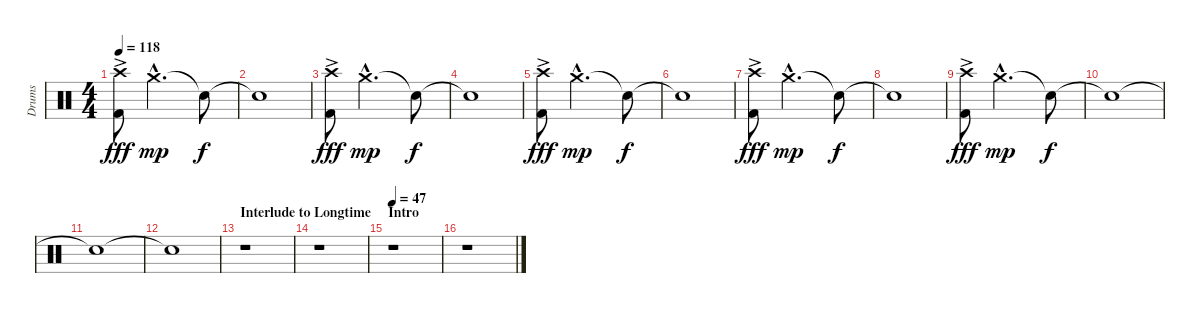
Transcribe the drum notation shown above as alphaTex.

\track ("Drums" "Drums") {instrument percussion}
\staff {score}
\articulation defaults
\ts (4 4)
\tempo 118
\clef neutral
\ks c
("Crash high (hit)"{ac} "Kick (hit) 2").8{dy fff} "Crash medium (hit)"{tr (49 32) hac}.2{d dy mp} "Snare (hit)"{t}.8{dy f} |
"Snare (hit)"{t}.1 |
("Crash high (hit)"{ac} "Kick (hit) 2").8{dy fff} "Crash medium (hit)"{tr (49 32) hac}.2{d dy mp} "Snare (hit)"{t}.8{dy f} |
"Snare (hit)"{t}.1 |
("Crash high (hit)"{ac} "Kick (hit) 2").8{dy fff} "Crash medium (hit)"{tr (49 32) hac}.2{d dy mp} "Snare (hit)"{t}.8{dy f} |
"Snare (hit)"{t}.1 |
("Crash high (hit)"{ac} "Kick (hit) 2").8{dy fff} "Crash medium (hit)"{tr (49 32) hac}.2{d dy mp} "Snare (hit)"{t}.8{dy f} |
"Snare (hit)"{t}.1 |
("Crash high (hit)"{ac} "Kick (hit) 2").8{dy fff} "Crash medium (hit)"{tr (49 32) hac}.2{d dy mp} "Snare (hit)"{t}.8{dy f} |
"Snare (hit)"{t}.1 |
"Snare (hit)"{t}.1 |
"Snare (hit)"{t}.1 |
\section ("" "Interlude to Longtime")
r.1 |
r.1 |
\section ("" "Intro")
\tempo 47
r.1 |
r.1
